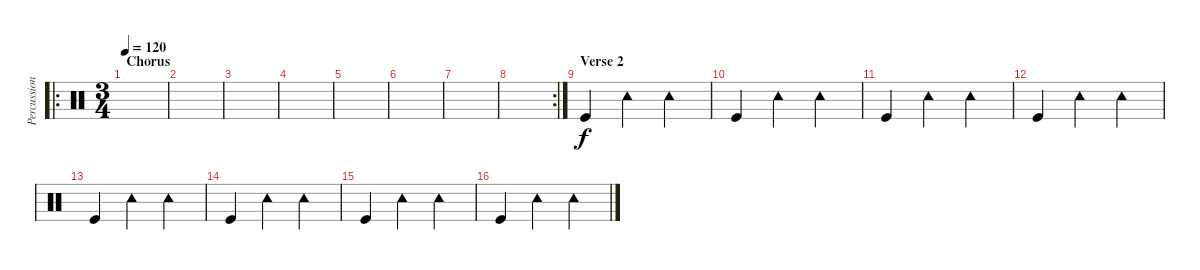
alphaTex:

\track ("Percussion" "Percussion") {instrument percussion}
\staff {score}
\articulation defaults
\ro
\ts (3 4)
\section ("" "Chorus")
\tempo 120
\clef neutral
\ks c
|
|
|
|
|
|
|
\rc 2
|
\section ("" "Verse 2")
"Kick (hit)".4 "Tambourine (hit)".4 "Tambourine (hit)".4 |
"Kick (hit)".4 "Tambourine (hit)".4 "Tambourine (hit)".4 |
"Kick (hit)".4 "Tambourine (hit)".4 "Tambourine (hit)".4 |
"Kick (hit)".4 "Tambourine (hit)".4 "Tambourine (hit)".4 |
"Kick (hit)".4 "Tambourine (hit)".4 "Tambourine (hit)".4 |
"Kick (hit)".4 "Tambourine (hit)".4 "Tambourine (hit)".4 |
"Kick (hit)".4 "Tambourine (hit)".4 "Tambourine (hit)".4 |
"Kick (hit)".4 "Tambourine (hit)".4 "Tambourine (hit)".4
